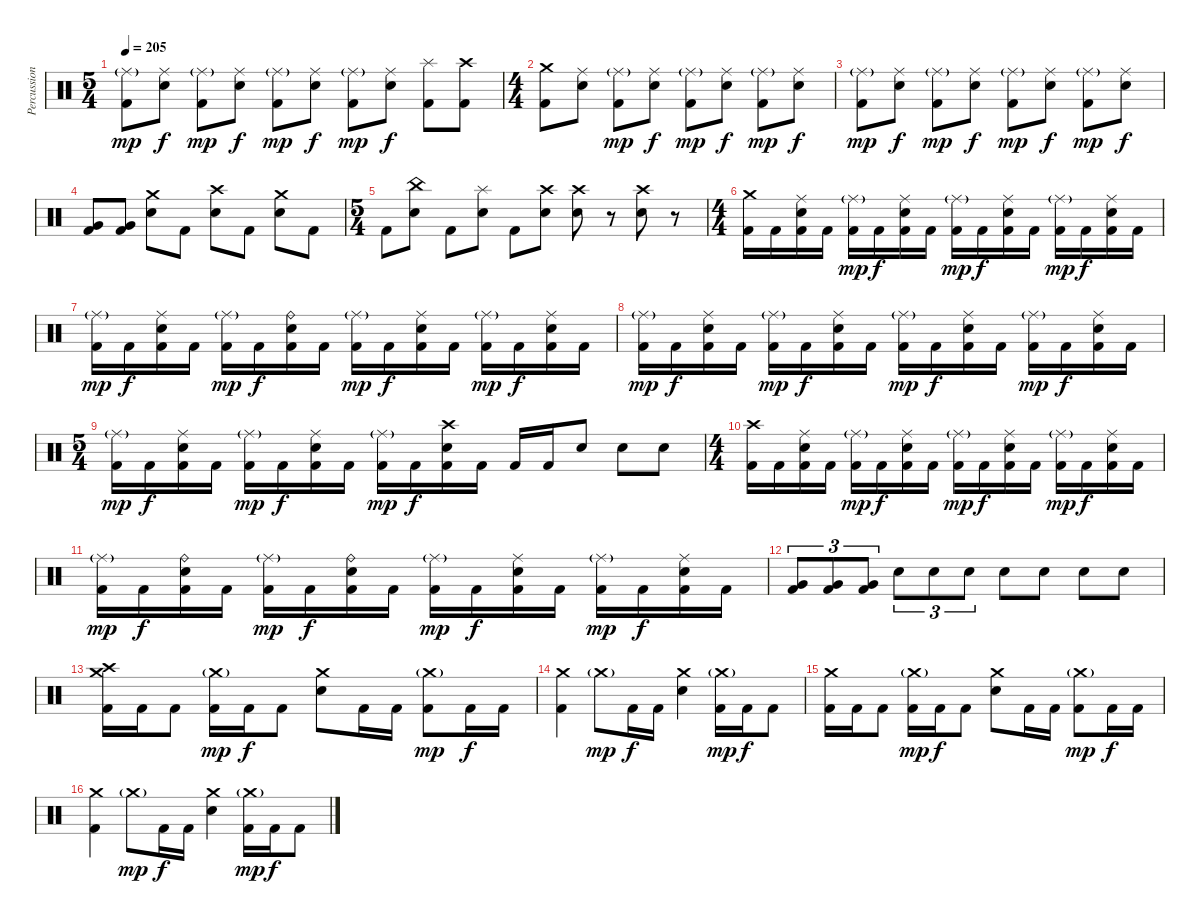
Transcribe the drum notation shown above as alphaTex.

\track ("Percussions" "Percussion") {instrument percussion}
\staff {score}
\articulation defaults
\ts (5 4)
\tempo 205
\clef neutral
\ks c
("Ride (middle)"{g} "Kick (hit) 2").8{dy mp} ("Ride (middle)" "Electric Snare (hit)").8{dy f} ("Ride (middle)"{g} "Kick (hit) 2").8{dy mp} ("Ride (middle)" "Electric Snare (hit)").8{dy f} ("Ride (middle)"{g} "Kick (hit) 2").8{dy mp} ("Ride (middle)" "Electric Snare (hit)").8{dy f} ("Ride (middle)"{g} "Kick (hit) 2").8{dy mp} ("Ride (middle)" "Electric Snare (hit)").8{dy f} ("Splash (hit)" "Kick (hit) 2").8 ("Crash high (hit)" "Kick (hit) 2").8 |
\ts (4 4)
("Crash medium (hit)" "Kick (hit) 2").8 ("Ride (middle)" "Electric Snare (hit)").8 ("Ride (middle)"{g} "Kick (hit) 2").8{dy mp} ("Ride (middle)" "Electric Snare (hit)").8{dy f} ("Ride (middle)"{g} "Kick (hit) 2").8{dy mp} ("Ride (middle)" "Electric Snare (hit)").8{dy f} ("Ride (middle)"{g} "Kick (hit) 2").8{dy mp} ("Ride (middle)" "Electric Snare (hit)").8{dy f} |
("Ride (middle)"{g} "Kick (hit) 2").8{dy mp} ("Ride (middle)" "Electric Snare (hit)").8{dy f} ("Ride (middle)"{g} "Kick (hit) 2").8{dy mp} ("Ride (middle)" "Electric Snare (hit)").8{dy f} ("Ride (middle)"{g} "Kick (hit) 2").8{dy mp} ("Ride (middle)" "Electric Snare (hit)").8{dy f} ("Ride (middle)"{g} "Kick (hit) 2").8{dy mp} ("Ride (middle)" "Electric Snare (hit)").8{dy f} |
("Very Low Tom (hit)" "Kick (hit) 2").8 ("Very Low Tom (hit)" "Kick (hit) 2").8 ("Crash medium (hit)" "Electric Snare (hit)").8 "Kick (hit) 2".8 ("Crash high (hit)" "Electric Snare (hit)").8 "Kick (hit) 2".8 ("Crash medium (hit)" "Electric Snare (hit)").8 "Kick (hit) 2".8 |
\ts (5 4)
"Kick (hit) 2".8 ("China (hit)" "Electric Snare (hit)").8 "Kick (hit) 2".8 ("Splash (hit)" "Electric Snare (hit)").8 "Kick (hit) 2".8 ("Crash high (hit)" "Electric Snare (hit)").8 ("Crash high (hit)" "Electric Snare (hit)").8 r.8 ("Crash high (hit)" "Electric Snare (hit)").8 r.8 |
\ts (4 4)
("Crash medium (hit)" "Kick (hit) 2").16 "Kick (hit) 2".16 ("Ride (middle)" "Electric Snare (hit)" "Kick (hit) 2").16 "Kick (hit) 2".16 ("Ride (middle)"{g} "Kick (hit) 2").16{dy mp} "Kick (hit) 2".16{dy f} ("Ride (middle)" "Electric Snare (hit)" "Kick (hit) 2").16 "Kick (hit) 2".16 ("Ride (middle)"{g} "Kick (hit) 2").16{dy mp} "Kick (hit) 2".16{dy f} ("Ride (middle)" "Electric Snare (hit)" "Kick (hit) 2").16 "Kick (hit) 2".16 ("Ride (middle)"{g} "Kick (hit) 2").16{dy mp} "Kick (hit) 2".16{dy f} ("Ride (middle)" "Electric Snare (hit)" "Kick (hit) 2").16 "Kick (hit) 2".16 |
("Ride (middle)"{g} "Kick (hit) 2").16{dy mp} "Kick (hit) 2".16{dy f} ("Ride (middle)" "Electric Snare (hit)" "Kick (hit) 2").16 "Kick (hit) 2".16 ("Ride (middle)"{g} "Kick (hit) 2").16{dy mp} "Kick (hit) 2".16{dy f} ("Ride (bell)" "Electric Snare (hit)" "Kick (hit) 2").16 "Kick (hit) 2".16 ("Ride (middle)"{g} "Kick (hit) 2").16{dy mp} "Kick (hit) 2".16{dy f} ("Ride (middle)" "Electric Snare (hit)" "Kick (hit) 2").16 "Kick (hit) 2".16 ("Ride (middle)"{g} "Kick (hit) 2").16{dy mp} "Kick (hit) 2".16{dy f} ("Ride (middle)" "Electric Snare (hit)" "Kick (hit) 2").16 "Kick (hit) 2".16 |
("Ride (middle)"{g} "Kick (hit) 2").16{dy mp} "Kick (hit) 2".16{dy f} ("Ride (middle)" "Electric Snare (hit)" "Kick (hit) 2").16 "Kick (hit) 2".16 ("Ride (middle)"{g} "Kick (hit) 2").16{dy mp} "Kick (hit) 2".16{dy f} ("Ride (middle)" "Electric Snare (hit)" "Kick (hit) 2").16 "Kick (hit) 2".16 ("Ride (middle)"{g} "Kick (hit) 2").16{dy mp} "Kick (hit) 2".16{dy f} ("Ride (middle)" "Electric Snare (hit)" "Kick (hit) 2").16 "Kick (hit) 2".16 ("Ride (middle)"{g} "Kick (hit) 2").16{dy mp} "Kick (hit) 2".16{dy f} ("Ride (middle)" "Electric Snare (hit)" "Kick (hit) 2").16 "Kick (hit) 2".16 |
\ts (5 4)
("Ride (middle)"{g} "Kick (hit) 2").16{dy mp} "Kick (hit) 2".16{dy f} ("Ride (middle)" "Electric Snare (hit)" "Kick (hit) 2").16 "Kick (hit) 2".16 ("Ride (middle)"{g} "Kick (hit) 2").16{dy mp} "Kick (hit) 2".16{dy f} ("Ride (middle)" "Electric Snare (hit)" "Kick (hit) 2").16 "Kick (hit) 2".16 ("Ride (middle)"{g} "Kick (hit) 2").16{dy mp} "Kick (hit) 2".16{dy f} ("Crash high (hit)" "Electric Snare (hit)" "Kick (hit) 2").16 "Kick (hit) 2".16 "Kick (hit) 2".16 "Kick (hit) 2".16 "Electric Snare (hit)".8 "Electric Snare (hit)".8 "Electric Snare (hit)".8 |
\ts (4 4)
("Crash high (hit)" "Kick (hit) 2").16 "Kick (hit) 2".16 ("Ride (middle)" "Electric Snare (hit)" "Kick (hit) 2").16 "Kick (hit) 2".16 ("Ride (middle)"{g} "Kick (hit) 2").16{dy mp} "Kick (hit) 2".16{dy f} ("Ride (middle)" "Electric Snare (hit)" "Kick (hit) 2").16 "Kick (hit) 2".16 ("Ride (middle)"{g} "Kick (hit) 2").16{dy mp} "Kick (hit) 2".16{dy f} ("Ride (middle)" "Electric Snare (hit)" "Kick (hit) 2").16 "Kick (hit) 2".16 ("Ride (middle)"{g} "Kick (hit) 2").16{dy mp} "Kick (hit) 2".16{dy f} ("Ride (middle)" "Electric Snare (hit)" "Kick (hit) 2").16 "Kick (hit) 2".16 |
("Ride (middle)"{g} "Kick (hit) 2").16{dy mp} "Kick (hit) 2".16{dy f} ("Ride (bell)" "Electric Snare (hit)" "Kick (hit) 2").16 "Kick (hit) 2".16 ("Ride (middle)"{g} "Kick (hit) 2").16{dy mp} "Kick (hit) 2".16{dy f} ("Ride (bell)" "Electric Snare (hit)" "Kick (hit) 2").16 "Kick (hit) 2".16 ("Ride (middle)"{g} "Kick (hit) 2").16{dy mp} "Kick (hit) 2".16{dy f} ("Ride (middle)" "Electric Snare (hit)" "Kick (hit) 2").16 "Kick (hit) 2".16 ("Ride (middle)"{g} "Kick (hit) 2").16{dy mp} "Kick (hit) 2".16{dy f} ("Ride (middle)" "Electric Snare (hit)" "Kick (hit) 2").16 "Kick (hit) 2".16 |
("Very Low Tom (hit)" "Kick (hit) 2").8{tu (3 2)} ("Very Low Tom (hit)" "Kick (hit) 2").8{tu (3 2)} ("Very Low Tom (hit)" "Kick (hit) 2").8{tu (3 2)} "Electric Snare (hit)".8{tu (3 2)} "Electric Snare (hit)".8{tu (3 2)} "Electric Snare (hit)".8{tu (3 2)} "Electric Snare (hit)".8 "Electric Snare (hit)".8 "Electric Snare (hit)".8 "Electric Snare (hit)".8 |
("Crash medium (hit)" "Crash high (hit)" "Kick (hit) 2").16 "Kick (hit) 2".16 "Kick (hit) 2".8 ("Crash medium (hit)"{g} "Kick (hit) 2").16{dy mp} "Kick (hit) 2".16{dy f} "Kick (hit) 2".8 ("Crash medium (hit)" "Electric Snare (hit)").8 "Kick (hit) 2".16 "Kick (hit) 2".16 ("Crash medium (hit)"{g} "Kick (hit) 2").8{dy mp} "Kick (hit) 2".16{dy f} "Kick (hit) 2".16 |
("Crash medium (hit)" "Kick (hit) 2").4 "Crash medium (hit)"{g}.8{dy mp} "Kick (hit) 2".16{dy f} "Kick (hit) 2".16 ("Crash medium (hit)" "Electric Snare (hit)").4 ("Crash medium (hit)"{g} "Kick (hit) 2").16{dy mp} "Kick (hit) 2".16{dy f} "Kick (hit) 2".8 |
("Crash medium (hit)" "Kick (hit) 2").16 "Kick (hit) 2".16 "Kick (hit) 2".8 ("Crash medium (hit)"{g} "Kick (hit) 2").16{dy mp} "Kick (hit) 2".16{dy f} "Kick (hit) 2".8 ("Crash medium (hit)" "Electric Snare (hit)").8 "Kick (hit) 2".16 "Kick (hit) 2".16 ("Crash medium (hit)"{g} "Kick (hit) 2").8{dy mp} "Kick (hit) 2".16{dy f} "Kick (hit) 2".16 |
("Crash medium (hit)" "Kick (hit) 2").4 "Crash medium (hit)"{g}.8{dy mp} "Kick (hit) 2".16{dy f} "Kick (hit) 2".16 ("Crash medium (hit)" "Electric Snare (hit)").4 ("Crash medium (hit)"{g} "Kick (hit) 2").16{dy mp} "Kick (hit) 2".16{dy f} "Kick (hit) 2".8
